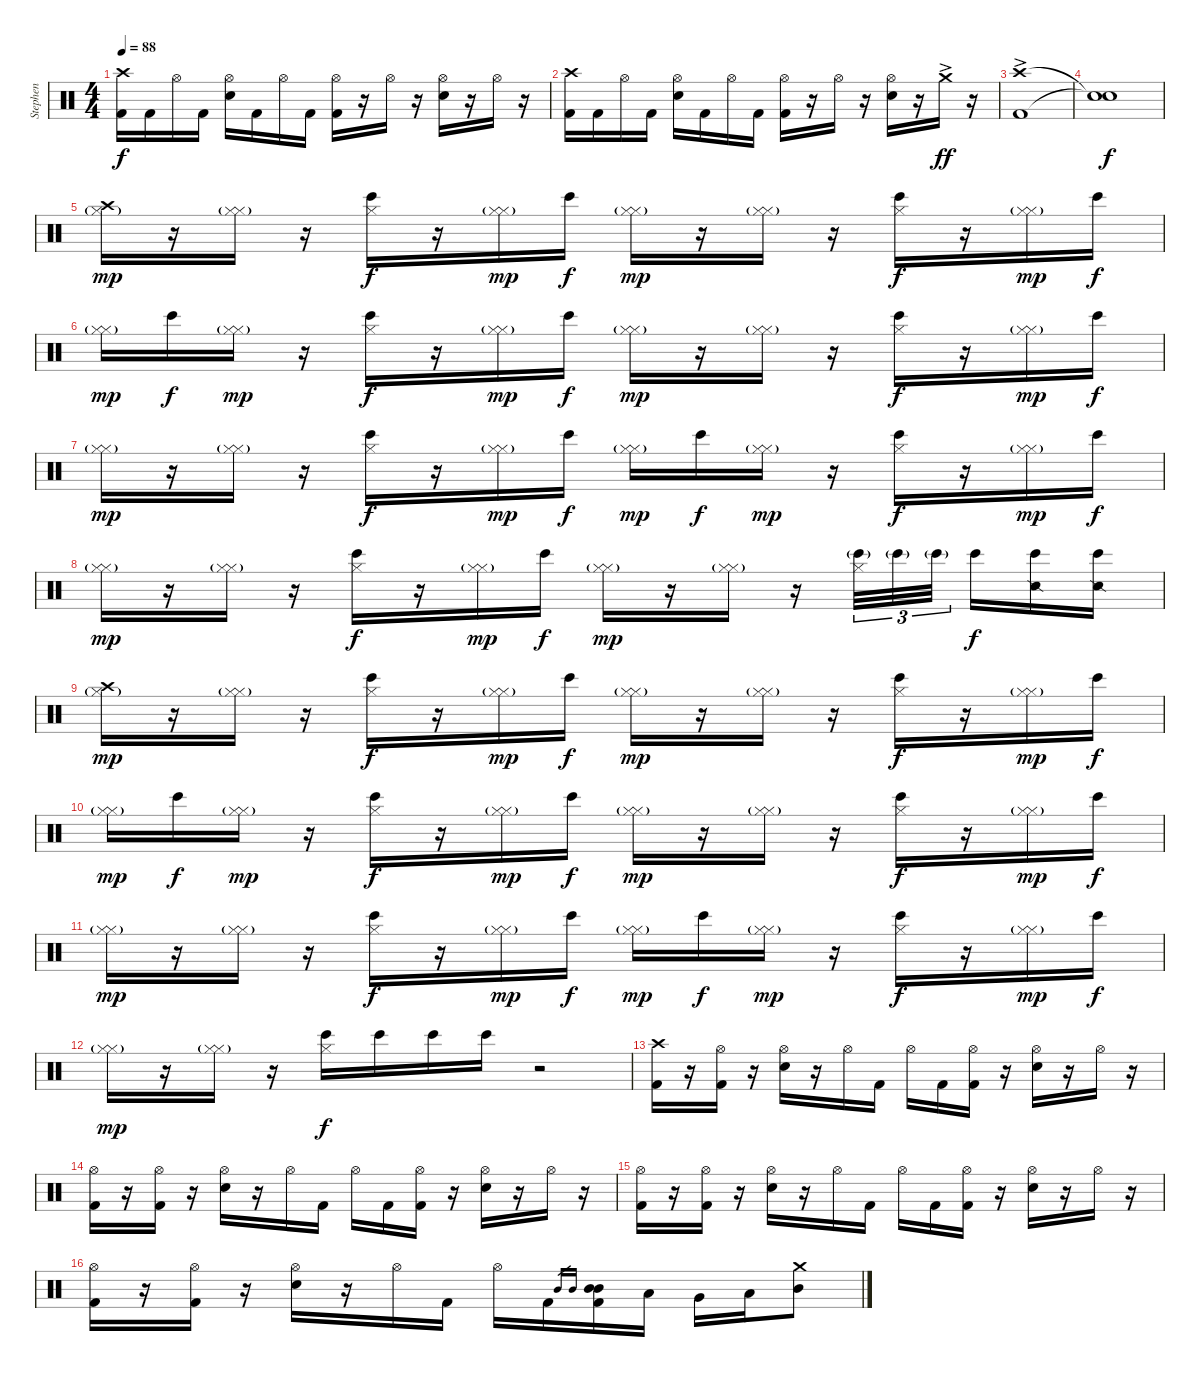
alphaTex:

\track ("Stephen" "Stephen") {instrument percussion}
\staff {score}
\articulation defaults
\ts (4 4)
\tempo 88
\clef neutral
\ks c
("Crash high (hit)" "Kick (hit) 2").16{dy f} "Kick (hit) 2".16 "Hi-Hat (open)".16 "Kick (hit) 2".16 ("Hi-Hat (open)" "Electric Snare (hit)").16 "Kick (hit) 2".16 "Hi-Hat (open)".16 "Kick (hit) 2".16 ("Hi-Hat (open)" "Kick (hit) 2").16 r.16 "Hi-Hat (open)".16 r.16 ("Hi-Hat (open)" "Electric Snare (hit)").16 r.16 "Hi-Hat (open)".16 r.16 |
("Crash high (hit)" "Kick (hit) 2").16 "Kick (hit) 2".16 "Hi-Hat (open)".16 "Kick (hit) 2".16 ("Hi-Hat (open)" "Electric Snare (hit)").16 "Kick (hit) 2".16 "Hi-Hat (open)".16 "Kick (hit) 2".16 ("Hi-Hat (open)" "Kick (hit) 2").16 r.16 "Hi-Hat (open)".16 r.16 ("Hi-Hat (open)" "Electric Snare (hit)").16 r.16 "Crash medium (hit)"{ac}.16{dy ff} r.16 |
("Crash high (hit)"{ac} "Kick (hit) 2").1 |
("Snare (hit)"{t} "Snare (hit)"{t}).1{dy f} |
("Crash high (hit)" "Hi-Hat (closed)"{g}).16{dy mp} r.16 ("Hi-Hat (closed)" "Hi-Hat (closed)"{g}).16 r.16 ("Hi-Hat (closed)" "Bongo High (hit)").16{dy f} r.16 ("Hi-Hat (closed)" "Hi-Hat (closed)"{g}).16{dy mp} "Bongo High (hit)".16{dy f} ("Hi-Hat (closed)" "Hi-Hat (closed)"{g}).16{dy mp} r.16 ("Hi-Hat (closed)" "Hi-Hat (closed)"{g}).16 r.16 ("Hi-Hat (closed)" "Bongo High (hit)").16{dy f} r.16 ("Hi-Hat (closed)" "Hi-Hat (closed)"{g}).16{dy mp} "Bongo High (hit)".16{dy f} |
("Hi-Hat (closed)" "Hi-Hat (closed)"{g}).16{dy mp} "Bongo High (hit)".16{dy f} ("Hi-Hat (closed)" "Hi-Hat (closed)"{g}).16{dy mp} r.16 ("Hi-Hat (closed)" "Bongo High (hit)").16{dy f} r.16 ("Hi-Hat (closed)" "Hi-Hat (closed)"{g}).16{dy mp} "Bongo High (hit)".16{dy f} ("Hi-Hat (closed)" "Hi-Hat (closed)"{g}).16{dy mp} r.16 ("Hi-Hat (closed)" "Hi-Hat (closed)"{g}).16 r.16 ("Hi-Hat (closed)" "Bongo High (hit)").16{dy f} r.16 ("Hi-Hat (closed)" "Hi-Hat (closed)"{g}).16{dy mp} "Bongo High (hit)".16{dy f} |
("Hi-Hat (closed)" "Hi-Hat (closed)"{g}).16{dy mp} r.16 ("Hi-Hat (closed)" "Hi-Hat (closed)"{g}).16 r.16 ("Hi-Hat (closed)" "Bongo High (hit)").16{dy f} r.16 ("Hi-Hat (closed)" "Hi-Hat (closed)"{g}).16{dy mp} "Bongo High (hit)".16{dy f} ("Hi-Hat (closed)" "Hi-Hat (closed)"{g}).16{dy mp} "Bongo High (hit)".16{dy f} ("Hi-Hat (closed)" "Hi-Hat (closed)"{g}).16{dy mp} r.16 ("Hi-Hat (closed)" "Bongo High (hit)").16{dy f} r.16 ("Hi-Hat (closed)" "Hi-Hat (closed)"{g}).16{dy mp} "Bongo High (hit)".16{dy f} |
("Hi-Hat (closed)" "Hi-Hat (closed)"{g}).16{dy mp} r.16 ("Hi-Hat (closed)" "Hi-Hat (closed)"{g}).16 r.16 ("Hi-Hat (closed)" "Bongo High (hit)").16{dy f} r.16 ("Hi-Hat (closed)" "Hi-Hat (closed)"{g}).16{dy mp} "Bongo High (hit)".16{dy f} ("Hi-Hat (closed)" "Hi-Hat (closed)"{g}).16{dy mp} r.16 ("Hi-Hat (closed)" "Hi-Hat (closed)"{g}).16 r.16 ("Hi-Hat (closed)" "Bongo High (hit)"{g}).32{tu (3 2)} "Bongo High (hit)"{g}.32{tu (3 2)} "Bongo High (hit)"{g}.32{tu (3 2) beam splitsecondary} "Bongo High (hit)".16{dy f} ("Snare (side stick) 2" "Bongo High (hit)").16{balance 16} ("Snare (side stick) 2" "Bongo High (hit)").16 |
("Crash high (hit)" "Hi-Hat (closed)"{g}).16{dy mp balance 8} r.16 ("Hi-Hat (closed)" "Hi-Hat (closed)"{g}).16 r.16 ("Hi-Hat (closed)" "Bongo High (hit)").16{dy f} r.16 ("Hi-Hat (closed)" "Hi-Hat (closed)"{g}).16{dy mp} "Bongo High (hit)".16{dy f} ("Hi-Hat (closed)" "Hi-Hat (closed)"{g}).16{dy mp} r.16 ("Hi-Hat (closed)" "Hi-Hat (closed)"{g}).16 r.16 ("Hi-Hat (closed)" "Bongo High (hit)").16{dy f} r.16 ("Hi-Hat (closed)" "Hi-Hat (closed)"{g}).16{dy mp} "Bongo High (hit)".16{dy f} |
("Hi-Hat (closed)" "Hi-Hat (closed)"{g}).16{dy mp} "Bongo High (hit)".16{dy f} ("Hi-Hat (closed)" "Hi-Hat (closed)"{g}).16{dy mp} r.16 ("Hi-Hat (closed)" "Bongo High (hit)").16{dy f} r.16 ("Hi-Hat (closed)" "Hi-Hat (closed)"{g}).16{dy mp} "Bongo High (hit)".16{dy f} ("Hi-Hat (closed)" "Hi-Hat (closed)"{g}).16{dy mp} r.16 ("Hi-Hat (closed)" "Hi-Hat (closed)"{g}).16 r.16 ("Hi-Hat (closed)" "Bongo High (hit)").16{dy f} r.16 ("Hi-Hat (closed)" "Hi-Hat (closed)"{g}).16{dy mp} "Bongo High (hit)".16{dy f} |
("Hi-Hat (closed)" "Hi-Hat (closed)"{g}).16{dy mp} r.16 ("Hi-Hat (closed)" "Hi-Hat (closed)"{g}).16 r.16 ("Hi-Hat (closed)" "Bongo High (hit)").16{dy f} r.16 ("Hi-Hat (closed)" "Hi-Hat (closed)"{g}).16{dy mp} "Bongo High (hit)".16{dy f} ("Hi-Hat (closed)" "Hi-Hat (closed)"{g}).16{dy mp} "Bongo High (hit)".16{dy f} ("Hi-Hat (closed)" "Hi-Hat (closed)"{g}).16{dy mp} r.16 ("Hi-Hat (closed)" "Bongo High (hit)").16{dy f} r.16 ("Hi-Hat (closed)" "Hi-Hat (closed)"{g}).16{dy mp} "Bongo High (hit)".16{dy f} |
("Hi-Hat (closed)" "Hi-Hat (closed)"{g}).16{dy mp} r.16 ("Hi-Hat (closed)" "Hi-Hat (closed)"{g}).16 r.16 ("Hi-Hat (closed)" "Bongo High (hit)").16{dy f} "Bongo High (hit)".16 "Bongo High (hit)".16 "Bongo High (hit)".16 r.2 |
("Crash high (hit)" "Kick (hit) 2").16 r.16 ("Hi-Hat (open)" "Kick (hit) 2").16 r.16 ("Hi-Hat (open)" "Electric Snare (hit)").16 r.16 "Hi-Hat (open)".16 "Kick (hit) 2".16 "Hi-Hat (open)".16 "Kick (hit) 2".16 ("Hi-Hat (open)" "Kick (hit) 2").16 r.16 ("Hi-Hat (open)" "Electric Snare (hit)").16 r.16 "Hi-Hat (open)".16 r.16 |
("Hi-Hat (open)" "Kick (hit) 2").16 r.16 ("Hi-Hat (open)" "Kick (hit) 2").16 r.16 ("Hi-Hat (open)" "Electric Snare (hit)").16 r.16 "Hi-Hat (open)".16 "Kick (hit) 2".16 "Hi-Hat (open)".16 "Kick (hit) 2".16 ("Hi-Hat (open)" "Kick (hit) 2").16 r.16 ("Hi-Hat (open)" "Electric Snare (hit)").16 r.16 "Hi-Hat (open)".16 r.16 |
("Hi-Hat (open)" "Kick (hit) 2").16 r.16 ("Hi-Hat (open)" "Kick (hit) 2").16 r.16 ("Hi-Hat (open)" "Electric Snare (hit)").16 r.16 "Hi-Hat (open)".16 "Kick (hit) 2".16 "Hi-Hat (open)".16 "Kick (hit) 2".16 ("Hi-Hat (open)" "Kick (hit) 2").16 r.16 ("Hi-Hat (open)" "Electric Snare (hit)").16 r.16 "Hi-Hat (open)".16 r.16 |
("Hi-Hat (open)" "Kick (hit) 2").16 r.16 ("Hi-Hat (open)" "Kick (hit) 2").16 r.16 ("Hi-Hat (open)" "Electric Snare (hit)").16 r.16 "Hi-Hat (open)".16 "Kick (hit) 2".16 "Hi-Hat (open)".16 "Kick (hit) 2".16 "Mid Tom (hit)".16{gr} "Mid Tom (hit)".16{gr} ("Mid Tom (hit)" "Mid Tom (hit)" "Kick (hit) 2").16 "Low Tom (hit)".16 "Very Low Tom (hit)".16 "Low Floor Tom (hit)".16 ("Crash medium (hit)" "Mid Tom (hit)").8
